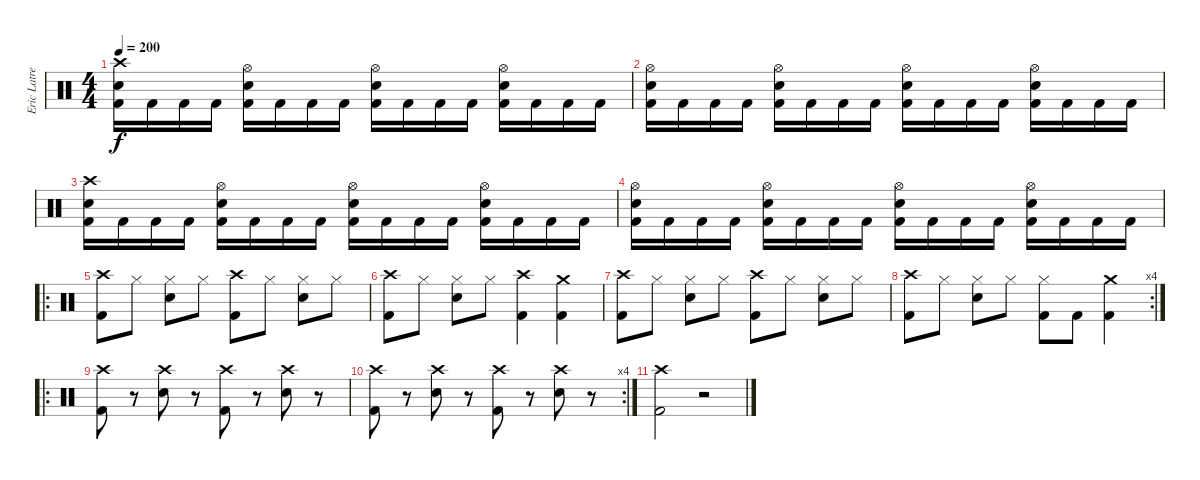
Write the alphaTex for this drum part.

\track ("Eric Latreille" "Eric Latre") {instrument percussion}
\staff {score}
\articulation defaults
\ts (4 4)
\tempo 200
\clef neutral
\ks c
("Crash high (hit)" "Snare (hit) 2" "Kick (hit) 2").16{dy f} "Kick (hit) 2".16 "Kick (hit) 2".16 "Kick (hit) 2".16 ("Hi-Hat (open)" "Snare (hit) 2" "Kick (hit) 2").16 "Kick (hit) 2".16 "Kick (hit) 2".16 "Kick (hit) 2".16 ("Hi-Hat (open)" "Snare (hit) 2" "Kick (hit) 2").16 "Kick (hit) 2".16 "Kick (hit) 2".16 "Kick (hit) 2".16 ("Hi-Hat (open)" "Snare (hit) 2" "Kick (hit) 2").16 "Kick (hit) 2".16 "Kick (hit) 2".16 "Kick (hit) 2".16 |
("Hi-Hat (open)" "Snare (hit) 2" "Kick (hit) 2").16 "Kick (hit) 2".16 "Kick (hit) 2".16 "Kick (hit) 2".16 ("Hi-Hat (open)" "Snare (hit) 2" "Kick (hit) 2").16 "Kick (hit) 2".16 "Kick (hit) 2".16 "Kick (hit) 2".16 ("Hi-Hat (open)" "Snare (hit) 2" "Kick (hit) 2").16 "Kick (hit) 2".16 "Kick (hit) 2".16 "Kick (hit) 2".16 ("Hi-Hat (open)" "Snare (hit) 2" "Kick (hit) 2").16 "Kick (hit) 2".16 "Kick (hit) 2".16 "Kick (hit) 2".16 |
("Crash high (hit)" "Snare (hit) 2" "Kick (hit) 2").16 "Kick (hit) 2".16 "Kick (hit) 2".16 "Kick (hit) 2".16 ("Hi-Hat (open)" "Snare (hit) 2" "Kick (hit) 2").16 "Kick (hit) 2".16 "Kick (hit) 2".16 "Kick (hit) 2".16 ("Hi-Hat (open)" "Snare (hit) 2" "Kick (hit) 2").16 "Kick (hit) 2".16 "Kick (hit) 2".16 "Kick (hit) 2".16 ("Hi-Hat (open)" "Snare (hit) 2" "Kick (hit) 2").16 "Kick (hit) 2".16 "Kick (hit) 2".16 "Kick (hit) 2".16 |
("Hi-Hat (open)" "Snare (hit) 2" "Kick (hit) 2").16 "Kick (hit) 2".16 "Kick (hit) 2".16 "Kick (hit) 2".16 ("Hi-Hat (open)" "Snare (hit) 2" "Kick (hit) 2").16 "Kick (hit) 2".16 "Kick (hit) 2".16 "Kick (hit) 2".16 ("Hi-Hat (open)" "Snare (hit) 2" "Kick (hit) 2").16 "Kick (hit) 2".16 "Kick (hit) 2".16 "Kick (hit) 2".16 ("Hi-Hat (open)" "Snare (hit) 2" "Kick (hit) 2").16 "Kick (hit) 2".16 "Kick (hit) 2".16 "Kick (hit) 2".16 |
\ro
("Crash high (hit)" "Kick (hit) 2").8 "Hi-Hat (closed)".8 ("Hi-Hat (closed)" "Snare (hit) 2").8 "Hi-Hat (closed)".8 ("Crash high (hit)" "Kick (hit) 2").8 "Hi-Hat (closed)".8 ("Hi-Hat (closed)" "Snare (hit) 2").8 "Hi-Hat (closed)".8 |
("Crash high (hit)" "Kick (hit) 2").8 "Hi-Hat (closed)".8 ("Hi-Hat (closed)" "Snare (hit) 2").8 "Hi-Hat (closed)".8 ("Crash high (hit)" "Kick (hit) 2").4 ("Crash medium (hit)" "Kick (hit) 2").4 |
("Crash high (hit)" "Kick (hit) 2").8 "Hi-Hat (closed)".8 ("Hi-Hat (closed)" "Snare (hit) 2").8 "Hi-Hat (closed)".8 ("Crash high (hit)" "Kick (hit) 2").8 "Hi-Hat (closed)".8 ("Hi-Hat (closed)" "Snare (hit) 2").8 "Hi-Hat (closed)".8 |
\rc 4
("Crash high (hit)" "Kick (hit) 2").8 "Hi-Hat (closed)".8 ("Hi-Hat (closed)" "Snare (hit) 2").8 "Hi-Hat (closed)".8 ("Hi-Hat (closed)" "Kick (hit) 2").8 "Kick (hit) 2".8 ("Crash medium (hit)" "Kick (hit) 2").4 |
\ro
("Crash high (hit)" "Kick (hit) 2").8 r.8 ("Crash high (hit)" "Snare (hit) 2").8 r.8 ("Crash high (hit)" "Kick (hit) 2").8 r.8 ("Crash high (hit)" "Snare (hit) 2").8 r.8 |
\rc 4
("Crash high (hit)" "Kick (hit) 2").8 r.8 ("Crash high (hit)" "Snare (hit) 2").8 r.8 ("Crash high (hit)" "Kick (hit) 2").8 r.8 ("Crash high (hit)" "Snare (hit) 2").8 r.8 |
("Crash high (hit)" "Kick (hit) 2").2 r.2
